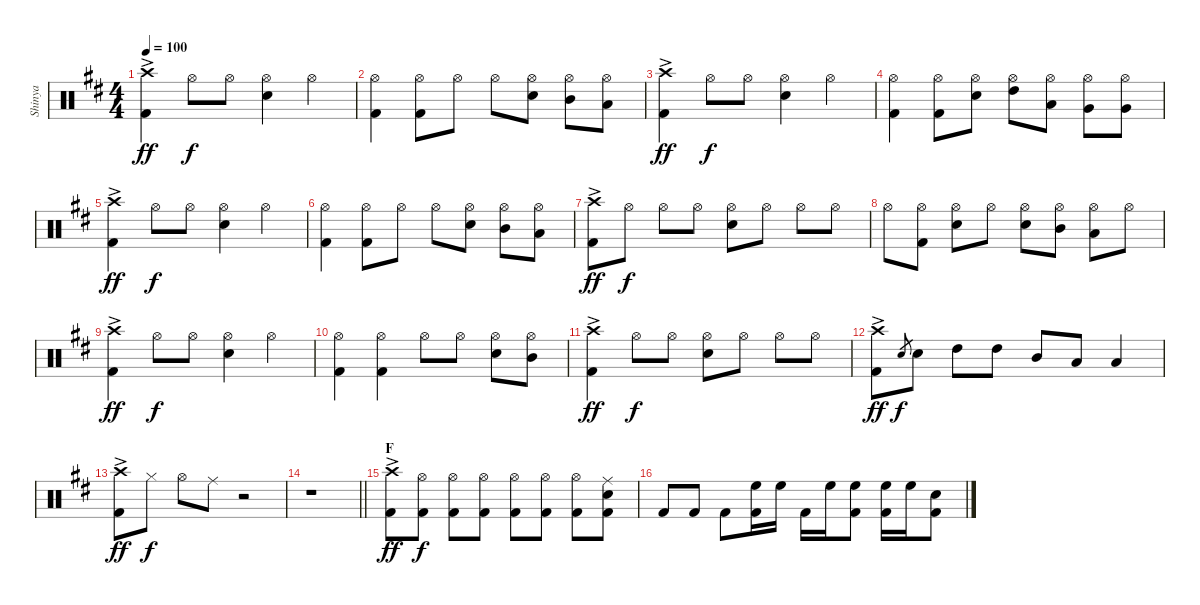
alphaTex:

\track ("Shinya" "Shinya") {instrument percussion}
\staff {score}
\articulation defaults
\ts (4 4)
\tempo 100
\clef neutral
\ks d
("Crash high (hit)"{ac} "Kick (hit) 2").4{dy ff} "Hi-Hat (open)".8{dy f} "Hi-Hat (open)".8 ("Hi-Hat (open)" "Snare (hit) 2").4 "Hi-Hat (open)".4 |
("Hi-Hat (open)" "Kick (hit) 2").4 ("Hi-Hat (open)" "Kick (hit) 2").8 "Hi-Hat (open)".8 "Hi-Hat (open)".8 ("Hi-Hat (open)" "Snare (hit) 2").8 ("Hi-Hat (open)" "Mid Tom (hit)").8 ("Hi-Hat (open)" "Low Tom (hit)").8 |
("Crash high (hit)"{ac} "Kick (hit) 2").4{dy ff} "Hi-Hat (open)".8{dy f} "Hi-Hat (open)".8 ("Hi-Hat (open)" "Snare (hit) 2").4 "Hi-Hat (open)".4 |
("Hi-Hat (open)" "Kick (hit) 2").4 ("Hi-Hat (open)" "Kick (hit) 2").8 ("Hi-Hat (open)" "Snare (hit) 2").8 ("Hi-Hat (open)" "High Tom (hit)").8 ("Hi-Hat (open)" "Low Tom (hit)").8 ("Hi-Hat (open)" "Very Low Tom (hit)").8 ("Hi-Hat (open)" "Very Low Tom (hit)").8 |
("Crash high (hit)"{ac} "Kick (hit) 2").4{dy ff} "Hi-Hat (open)".8{dy f} "Hi-Hat (open)".8 ("Hi-Hat (open)" "Snare (hit) 2").4 "Hi-Hat (open)".4 |
("Hi-Hat (open)" "Kick (hit) 2").4 ("Hi-Hat (open)" "Kick (hit) 2").8 "Hi-Hat (open)".8 "Hi-Hat (open)".8 ("Hi-Hat (open)" "Snare (hit) 2").8 ("Hi-Hat (open)" "Mid Tom (hit)").8 ("Hi-Hat (open)" "Low Tom (hit)").8 |
("Crash high (hit)"{ac} "Kick (hit) 2").8{dy ff} "Hi-Hat (open)".8{dy f} "Hi-Hat (open)".8 "Hi-Hat (open)".8 ("Hi-Hat (open)" "Snare (hit) 2").8 "Hi-Hat (open)".8 "Hi-Hat (open)".8 "Hi-Hat (open)".8 |
"Hi-Hat (open)".8 ("Hi-Hat (open)" "Kick (hit) 2").8 ("Hi-Hat (open)" "Snare (hit) 2").8 "Hi-Hat (open)".8 ("Hi-Hat (open)" "Snare (hit) 2").8 ("Hi-Hat (open)" "Mid Tom (hit)").8 ("Hi-Hat (open)" "Low Tom (hit)").8 "Hi-Hat (open)".8 |
("Crash high (hit)"{ac} "Kick (hit) 2").4{dy ff} "Hi-Hat (open)".8{dy f} "Hi-Hat (open)".8 ("Hi-Hat (open)" "Snare (hit) 2").4 "Hi-Hat (open)".4 |
("Hi-Hat (open)" "Kick (hit) 2").4 ("Hi-Hat (open)" "Kick (hit) 2").4 "Hi-Hat (open)".8 "Hi-Hat (open)".8 ("Hi-Hat (open)" "Snare (hit) 2").8 ("Hi-Hat (open)" "Mid Tom (hit)").8 |
("Crash high (hit)"{ac} "Kick (hit) 2").4{dy ff} "Hi-Hat (open)".8{dy f} "Hi-Hat (open)".8 ("Hi-Hat (open)" "Snare (hit) 2").8 "Hi-Hat (open)".8 "Hi-Hat (open)".8 "Hi-Hat (open)".8 |
("Crash high (hit)"{ac} "Kick (hit) 2").8{dy ff} "Snare (hit) 2".8{gr dy f} "Snare (hit) 2".8 "High Tom (hit)".8 "High Tom (hit)".8 "Mid Tom (hit)".8 "Low Tom (hit)".8 "Low Tom (hit)".4 |
("Crash high (hit)" "Kick (hit) 2"{ac}).8{dy ff} "Hi-Hat (closed)".8{dy f} "Hi-Hat (open)".8 "Ride (middle)".8 r.2 |
\barLineRight lightlight
r.1 |
\section ("" "F")
("Crash high (hit)" "Kick (hit) 2"{ac}).8{dy ff} ("Hi-Hat (open)" "Kick (hit) 2").8{dy f} ("Hi-Hat (open)" "Kick (hit) 2").8 ("Hi-Hat (open)" "Kick (hit) 2").8 ("Hi-Hat (open)" "Kick (hit) 2").8 ("Hi-Hat (open)" "Kick (hit) 2").8 ("Hi-Hat (open)" "Kick (hit) 2").8 ("Ride (middle)" "Snare (hit) 2" "Kick (hit) 2").8 |
"Kick (hit) 2".8 "Kick (hit) 2".8 "Kick (hit) 2".8 ("High Floor Tom (hit)" "Kick (hit) 2").16 "High Floor Tom (hit)".16 "Kick (hit) 2".16 "High Floor Tom (hit)".16 ("High Floor Tom (hit)" "Kick (hit) 2").8 ("High Floor Tom (hit)" "Kick (hit) 2").16 "High Floor Tom (hit)".16 ("Snare (hit) 2" "Kick (hit) 2").8
